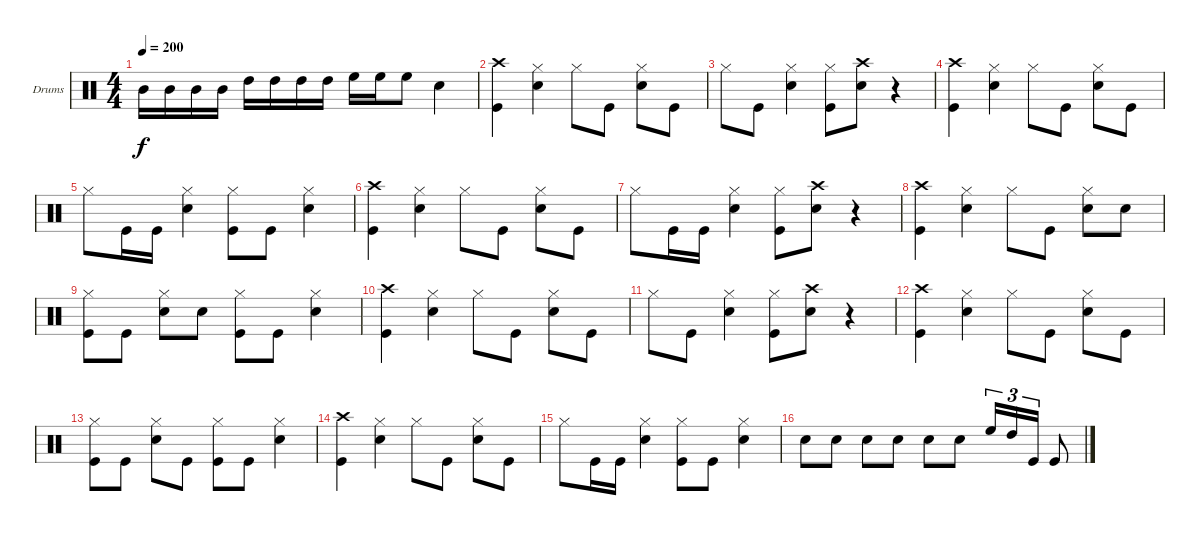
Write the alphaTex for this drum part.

\bracketExtendMode groupsimilarinstruments
\firstSystemTrackNameOrientation horizontal
\otherSystemsTrackNameOrientation horizontal
\track ("Drumkit" "Drums") {instrument percussion}
\staff {score}
\articulation defaults
\ts (4 4)
\tempo 200
\clef neutral
\ks c "Mid Tom (hit)".16{dy f} "Mid Tom (hit)".16 "Mid Tom (hit)".16 "Mid Tom (hit)".16 "High Tom (hit)".16 "High Tom (hit)".16 "High Tom (hit)".16 "High Tom (hit)".16 "High Floor Tom (hit)".16 "High Floor Tom (hit)".16 "High Floor Tom (hit)".8 "Snare (hit) 2".4
|
("Kick (hit)" "Crash high (hit)").4 ("Hi-Hat (closed)" "Snare (hit) 2").4 "Hi-Hat (closed)".8 "Kick (hit)".8 ("Snare (hit) 2" "Hi-Hat (closed)").8 "Kick (hit)".8 |
"Hi-Hat (closed)".8 "Kick (hit)".8 ("Snare (hit) 2" "Hi-Hat (closed)").4 ("Hi-Hat (closed)" "Kick (hit)").8 ("Crash high (hit)" "Snare (hit) 2").8 r.4 |
("Crash high (hit)" "Kick (hit)").4 ("Hi-Hat (closed)" "Snare (hit) 2").4 "Hi-Hat (closed)".8 "Kick (hit)".8 ("Snare (hit) 2" "Hi-Hat (closed)").8 "Kick (hit)".8 |
"Hi-Hat (closed)".8 "Kick (hit)".16 "Kick (hit)".16 ("Snare (hit) 2" "Hi-Hat (closed)").4 ("Hi-Hat (closed)" "Kick (hit)").8 "Kick (hit)".8 ("Snare (hit) 2" "Hi-Hat (closed)").4 |
("Kick (hit)" "Crash high (hit)").4 ("Hi-Hat (closed)" "Snare (hit) 2").4 "Hi-Hat (closed)".8 "Kick (hit)".8 ("Snare (hit) 2" "Hi-Hat (closed)").8 "Kick (hit)".8 |
"Hi-Hat (closed)".8 "Kick (hit)".16 "Kick (hit)".16 ("Snare (hit) 2" "Hi-Hat (closed)").4 ("Hi-Hat (closed)" "Kick (hit)").8 ("Crash high (hit)" "Snare (hit) 2").8 r.4 |
("Kick (hit)" "Crash high (hit)").4 ("Hi-Hat (closed)" "Snare (hit) 2").4 "Hi-Hat (closed)".8 "Kick (hit)".8 ("Hi-Hat (closed)" "Snare (hit) 2").8 "Snare (hit) 2".8 |
("Hi-Hat (closed)" "Kick (hit)").8 "Kick (hit)".8 ("Snare (hit) 2" "Hi-Hat (closed)").8 "Snare (hit) 2".8 ("Hi-Hat (closed)" "Kick (hit)").8 "Kick (hit)".8 ("Snare (hit) 2" "Hi-Hat (closed)").4 |
("Kick (hit)" "Crash high (hit)").4 ("Hi-Hat (closed)" "Snare (hit) 2").4 "Hi-Hat (closed)".8 "Kick (hit)".8 ("Snare (hit) 2" "Hi-Hat (closed)").8 "Kick (hit)".8 |
"Hi-Hat (closed)".8 "Kick (hit)".8 ("Snare (hit) 2" "Hi-Hat (closed)").4 ("Kick (hit)" "Hi-Hat (closed)").8 ("Snare (hit) 2" "Crash high (hit)").8 r.4 |
("Kick (hit)" "Crash high (hit)").4 ("Hi-Hat (closed)" "Snare (hit) 2").4 "Hi-Hat (closed)".8 "Kick (hit)".8 ("Snare (hit) 2" "Hi-Hat (closed)").8 "Kick (hit)".8 |
("Kick (hit)" "Hi-Hat (closed)").8 "Kick (hit)".8 ("Snare (hit) 2" "Hi-Hat (closed)").8 "Kick (hit)".8 ("Kick (hit)" "Hi-Hat (closed)").8 "Kick (hit)".8 ("Snare (hit) 2" "Hi-Hat (closed)").4 |
("Kick (hit)" "Crash high (hit)").4 ("Hi-Hat (closed)" "Snare (hit) 2").4 "Hi-Hat (closed)".8 "Kick (hit)".8 ("Snare (hit) 2" "Hi-Hat (closed)").8 "Kick (hit)".8 |
"Hi-Hat (closed)".8 "Kick (hit)".16 "Kick (hit)".16 ("Snare (hit) 2" "Hi-Hat (closed)").4 ("Kick (hit)" "Hi-Hat (closed)").8 "Kick (hit)".8 ("Snare (hit) 2" "Hi-Hat (closed)").4 |
"Snare (hit) 2".8 "Snare (hit) 2".8 "Snare (hit) 2".8 "Snare (hit) 2".8 "Snare (hit) 2".8 "Snare (hit) 2".8 "High Floor Tom (hit)".16{tu (3 2)} "High Tom (hit)".16{tu (3 2)} "Kick (hit)".16{tu (3 2)} "Kick (hit)".8
